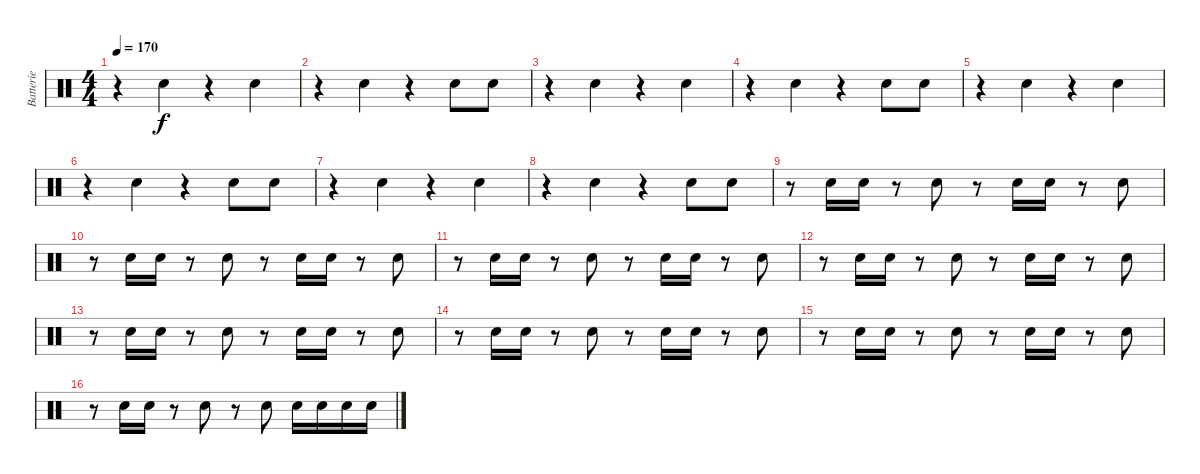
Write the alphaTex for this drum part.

\track ("Batterie" "Batterie") {instrument percussion}
\staff {score}
\articulation defaults
\ts (4 4)
\tempo 170
\clef neutral
\ks c
r.4{dy f} "Snare (hit) 2".4 r.4 "Snare (hit) 2".4 |
r.4 "Snare (hit) 2".4 r.4 "Snare (hit) 2".8 "Snare (hit) 2".8 |
r.4 "Snare (hit) 2".4 r.4 "Snare (hit) 2".4 |
r.4 "Snare (hit) 2".4 r.4 "Snare (hit) 2".8 "Snare (hit) 2".8 |
r.4 "Snare (hit) 2".4 r.4 "Snare (hit) 2".4 |
r.4 "Snare (hit) 2".4 r.4 "Snare (hit) 2".8 "Snare (hit) 2".8 |
r.4 "Snare (hit) 2".4 r.4 "Snare (hit) 2".4 |
r.4 "Snare (hit) 2".4 r.4 "Snare (hit) 2".8 "Snare (hit) 2".8 |
r.8 "Snare (hit) 2".16 "Snare (hit) 2".16 r.8 "Snare (hit) 2".8 r.8 "Snare (hit) 2".16 "Snare (hit) 2".16 r.8 "Snare (hit) 2".8 |
r.8 "Snare (hit) 2".16 "Snare (hit) 2".16 r.8 "Snare (hit) 2".8 r.8 "Snare (hit) 2".16 "Snare (hit) 2".16 r.8 "Snare (hit) 2".8 |
r.8 "Snare (hit) 2".16 "Snare (hit) 2".16 r.8 "Snare (hit) 2".8 r.8 "Snare (hit) 2".16 "Snare (hit) 2".16 r.8 "Snare (hit) 2".8 |
r.8 "Snare (hit) 2".16 "Snare (hit) 2".16 r.8 "Snare (hit) 2".8 r.8 "Snare (hit) 2".16 "Snare (hit) 2".16 r.8 "Snare (hit) 2".8 |
r.8 "Snare (hit) 2".16 "Snare (hit) 2".16 r.8 "Snare (hit) 2".8 r.8 "Snare (hit) 2".16 "Snare (hit) 2".16 r.8 "Snare (hit) 2".8 |
r.8 "Snare (hit) 2".16 "Snare (hit) 2".16 r.8 "Snare (hit) 2".8 r.8 "Snare (hit) 2".16 "Snare (hit) 2".16 r.8 "Snare (hit) 2".8 |
r.8 "Snare (hit) 2".16 "Snare (hit) 2".16 r.8 "Snare (hit) 2".8 r.8 "Snare (hit) 2".16 "Snare (hit) 2".16 r.8 "Snare (hit) 2".8 |
r.8 "Snare (hit) 2".16 "Snare (hit) 2".16 r.8 "Snare (hit) 2".8 r.8 "Snare (hit) 2".8 "Snare (hit) 2".16 "Snare (hit) 2".16 "Snare (hit) 2".16 "Snare (hit) 2".16
